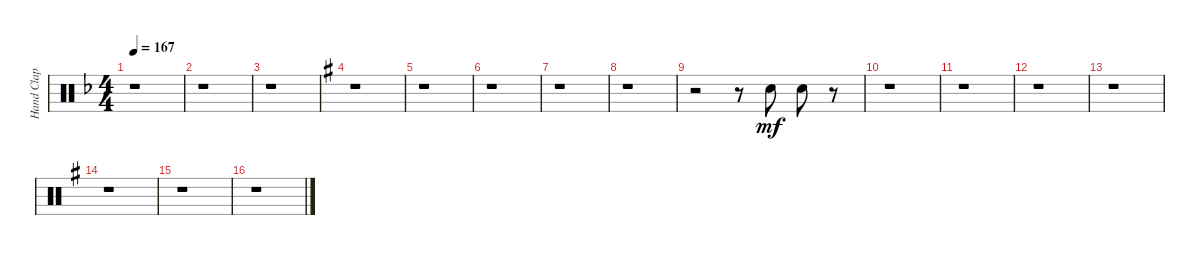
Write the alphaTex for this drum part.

\track ("Hand Clap" "Hand Clap") {instrument percussion}
\staff {score}
\articulation defaults
\ts (4 4)
\tempo 167
\clef neutral
\ks dminor
r.1{dy mf} |
r.1 |
r.1 |
\ks eminor
r.1 |
r.1 |
r.1 |
r.1 |
r.1 |
r.2 r.8 "Hand Clap (hit)".8 "Hand Clap (hit)".8 r.8 |
r.1 |
r.1 |
r.1 |
r.1 |
r.1 |
r.1 |
r.1
